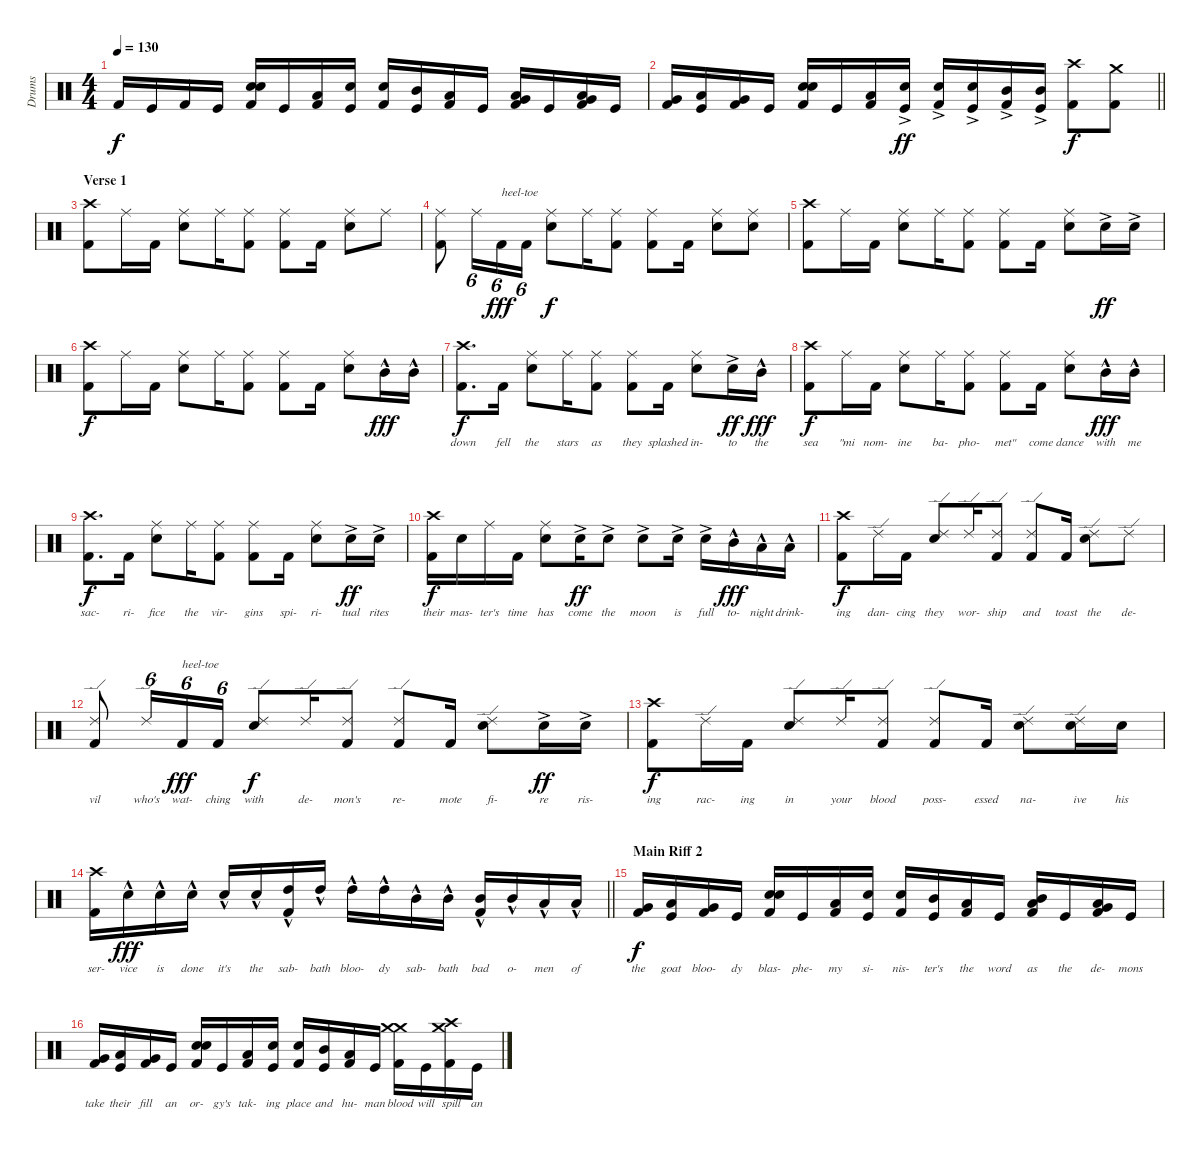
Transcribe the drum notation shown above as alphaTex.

\track ("Drums" "Drums") {instrument percussion}
\staff {score}
\articulation defaults
\ts (4 4)
\tempo 130
\clef neutral
\ks c "Kick (hit) 2".16{dy f} "Kick (hit)".16 "Kick (hit) 2".16 "Kick (hit)".16
("Snare (hit) 2" "Snare (hit) 2" "Kick (hit) 2").16 "Kick (hit)".16 ("Low Tom (hit)" "Kick (hit) 2").16 ("Snare (hit) 2" "Kick (hit)").16 ("Snare (hit) 2" "Kick (hit) 2").16 ("Mid Tom (hit)" "Kick (hit)").16 ("Low Tom (hit)" "Kick (hit) 2").16 "Kick (hit)".16 ("Low Tom (hit)" "Very Low Tom (hit)" "Kick (hit) 2").16 "Kick (hit)".16 ("Low Tom (hit)" "Very Low Tom (hit)" "Kick (hit) 2").16 "Kick (hit)".16 |
\barLineRight lightlight
("Very Low Tom (hit)" "Kick (hit) 2").16 ("Low Tom (hit)" "Kick (hit)").16 ("Very Low Tom (hit)" "Kick (hit) 2").16 "Kick (hit)".16 ("Snare (hit) 2" "Snare (hit) 2" "Kick (hit) 2").16 "Kick (hit)".16 ("Low Tom (hit)" "Kick (hit) 2").16 ("Snare (hit) 2"{ac} "Kick (hit)").16{dy ff} ("Snare (hit) 2"{ac} "Kick (hit) 2").16 ("Snare (hit) 2"{ac} "Kick (hit)").16 ("Mid Tom (hit)"{ac} "Kick (hit) 2").16 ("Mid Tom (hit)"{ac} "Kick (hit)").16 ("Crash high (hit)" "Kick (hit) 2").8{dy f} ("Crash medium (hit)" "Kick (hit) 2").8 |
\section ("" "Verse 1")
("Crash high (hit)" "Kick (hit) 2").8 "Ride (middle)".16 "Kick (hit) 2".16 ("Ride (middle)" "Snare (hit) 2").8 "Ride (middle)".16 ("Ride (middle)" "Kick (hit) 2").8 ("Ride (middle)" "Kick (hit) 2").8 "Kick (hit) 2".16 ("Ride (middle)" "Snare (hit) 2").8 "Ride (middle)".8 |
("Ride (middle)" "Kick (hit) 2").8 "Ride (middle)".16{tu (6 4)} "Kick (hit) 2".16{tu (6 4) txt "heel-toe" dy fff} "Kick (hit) 2".16{tu (6 4)} ("Ride (middle)" "Snare (hit) 2").8{dy f} "Ride (middle)".16 ("Ride (middle)" "Kick (hit) 2").8 ("Ride (middle)" "Kick (hit) 2").8 "Kick (hit) 2".16 ("Ride (middle)" "Snare (hit) 2").8 ("Ride (middle)" "Snare (hit) 2").8 |
("Crash high (hit)" "Kick (hit) 2").8 "Ride (middle)".16 "Kick (hit) 2".16 ("Ride (middle)" "Snare (hit) 2").8 "Ride (middle)".16 ("Ride (middle)" "Kick (hit) 2").8 ("Ride (middle)" "Kick (hit) 2").8 "Kick (hit) 2".16 ("Ride (middle)" "Snare (hit) 2").8 "Snare (hit) 2"{ac}.16{dy ff} "Snare (hit) 2"{ac}.16 |
("Crash high (hit)" "Kick (hit) 2").8{dy f} "Ride (middle)".16 "Kick (hit) 2".16 ("Ride (middle)" "Snare (hit) 2").8 "Ride (middle)".16 ("Ride (middle)" "Kick (hit) 2").8 ("Ride (middle)" "Kick (hit) 2").8 "Kick (hit) 2".16 ("Ride (middle)" "Snare (hit) 2").8 "Mid Tom (hit)"{hac}.16{dy fff} "Mid Tom (hit)"{hac}.16 |
("Crash high (hit)" "Kick (hit) 2").8{d lyrics (0 "down") lyrics (1 "") lyrics (2 "") lyrics (3 "") lyrics (4 "") dy f} "Kick (hit) 2".16{lyrics (0 "fell") lyrics (1 "") lyrics (2 "") lyrics (3 "") lyrics (4 "")} ("Ride (middle)" "Snare (hit) 2").8{lyrics (0 "the") lyrics (1 "") lyrics (2 "") lyrics (3 "") lyrics (4 "")} "Ride (middle)".16{lyrics (0 "stars") lyrics (1 "") lyrics (2 "") lyrics (3 "") lyrics (4 "")} ("Ride (middle)" "Kick (hit) 2").8{lyrics (0 "as") lyrics (1 "") lyrics (2 "") lyrics (3 "") lyrics (4 "")} ("Ride (middle)" "Kick (hit) 2").8{lyrics (0 "they") lyrics (1 "") lyrics (2 "") lyrics (3 "") lyrics (4 "")} "Kick (hit) 2".16{lyrics (0 "splashed") lyrics (1 "") lyrics (2 "") lyrics (3 "") lyrics (4 "")} ("Ride (middle)" "Snare (hit) 2").8{lyrics (0 "in-") lyrics (1 "") lyrics (2 "") lyrics (3 "") lyrics (4 "")} "Snare (hit) 2"{ac}.16{lyrics (0 "to") lyrics (1 "") lyrics (2 "") lyrics (3 "") lyrics (4 "") dy ff} "Mid Tom (hit)"{hac}.16{lyrics (0 "the") lyrics (1 "") lyrics (2 "") lyrics (3 "") lyrics (4 "") dy fff} |
("Crash high (hit)" "Kick (hit) 2").8{lyrics (0 "sea") lyrics (1 "") lyrics (2 "") lyrics (3 "") lyrics (4 "") dy f} "Ride (middle)".16{lyrics (0 "\"mi") lyrics (1 "") lyrics (2 "") lyrics (3 "") lyrics (4 "")} "Kick (hit) 2".16{lyrics (0 "nom-") lyrics (1 "") lyrics (2 "") lyrics (3 "") lyrics (4 "")} ("Ride (middle)" "Snare (hit) 2").8{lyrics (0 "ine") lyrics (1 "") lyrics (2 "") lyrics (3 "") lyrics (4 "")} "Ride (middle)".16{lyrics (0 "ba-") lyrics (1 "") lyrics (2 "") lyrics (3 "") lyrics (4 "")} ("Ride (middle)" "Kick (hit) 2").8{lyrics (0 "pho-") lyrics (1 "") lyrics (2 "") lyrics (3 "") lyrics (4 "")} ("Ride (middle)" "Kick (hit) 2").8{lyrics (0 "met\"") lyrics (1 "") lyrics (2 "") lyrics (3 "") lyrics (4 "")} "Kick (hit) 2".16{lyrics (0 "come") lyrics (1 "") lyrics (2 "") lyrics (3 "") lyrics (4 "")} ("Ride (middle)" "Snare (hit) 2").8{lyrics (0 "dance") lyrics (1 "") lyrics (2 "") lyrics (3 "") lyrics (4 "")} "Mid Tom (hit)"{hac}.16{lyrics (0 "with") lyrics (1 "") lyrics (2 "") lyrics (3 "") lyrics (4 "") dy fff} "Mid Tom (hit)"{hac}.16{lyrics (0 "me") lyrics (1 "") lyrics (2 "") lyrics (3 "") lyrics (4 "")} |
("Crash high (hit)" "Kick (hit) 2").8{d lyrics (0 "sac-") lyrics (1 "") lyrics (2 "") lyrics (3 "") lyrics (4 "") dy f} "Kick (hit) 2".16{lyrics (0 "ri-") lyrics (1 "") lyrics (2 "") lyrics (3 "") lyrics (4 "")} ("Ride (middle)" "Snare (hit) 2").8{lyrics (0 "fice") lyrics (1 "") lyrics (2 "") lyrics (3 "") lyrics (4 "")} "Ride (middle)".16{lyrics (0 "the") lyrics (1 "") lyrics (2 "") lyrics (3 "") lyrics (4 "")} ("Ride (middle)" "Kick (hit) 2").8{lyrics (0 "vir-") lyrics (1 "") lyrics (2 "") lyrics (3 "") lyrics (4 "")} ("Ride (middle)" "Kick (hit) 2").8{lyrics (0 "gins") lyrics (1 "") lyrics (2 "") lyrics (3 "") lyrics (4 "")} "Kick (hit) 2".16{lyrics (0 "spi-") lyrics (1 "") lyrics (2 "") lyrics (3 "") lyrics (4 "")} ("Ride (middle)" "Snare (hit) 2").8{lyrics (0 "ri-") lyrics (1 "") lyrics (2 "") lyrics (3 "") lyrics (4 "")} "Snare (hit) 2"{ac}.16{lyrics (0 "tual") lyrics (1 "") lyrics (2 "") lyrics (3 "") lyrics (4 "") dy ff} "Snare (hit) 2"{ac}.16{lyrics (0 "rites") lyrics (1 "") lyrics (2 "") lyrics (3 "") lyrics (4 "")} |
("Crash high (hit)" "Kick (hit) 2").16{lyrics (0 "their") lyrics (1 "") lyrics (2 "") lyrics (3 "") lyrics (4 "") dy f} "Snare (hit) 2".16{lyrics (0 "mas-") lyrics (1 "") lyrics (2 "") lyrics (3 "") lyrics (4 "")} "Ride (middle)".16{lyrics (0 "ter's") lyrics (1 "") lyrics (2 "") lyrics (3 "") lyrics (4 "")} "Kick (hit) 2".16{lyrics (0 "time") lyrics (1 "") lyrics (2 "") lyrics (3 "") lyrics (4 "")} ("Ride (middle)" "Snare (hit) 2").8{lyrics (0 "has") lyrics (1 "") lyrics (2 "") lyrics (3 "") lyrics (4 "")} "Snare (hit) 2"{ac}.16{lyrics (0 "come") lyrics (1 "") lyrics (2 "") lyrics (3 "") lyrics (4 "") dy ff} "Snare (hit) 2"{ac}.8{lyrics (0 "the") lyrics (1 "") lyrics (2 "") lyrics (3 "") lyrics (4 "")} "Snare (hit) 2"{ac}.8{lyrics (0 "moon") lyrics (1 "") lyrics (2 "") lyrics (3 "") lyrics (4 "")} "Snare (hit) 2"{ac}.16{lyrics (0 "is") lyrics (1 "") lyrics (2 "") lyrics (3 "") lyrics (4 "")} "Snare (hit) 2"{ac}.16{lyrics (0 "full") lyrics (1 "") lyrics (2 "") lyrics (3 "") lyrics (4 "")} "Mid Tom (hit)"{hac}.16{lyrics (0 "to-") lyrics (1 "") lyrics (2 "") lyrics (3 "") lyrics (4 "") dy fff} "Low Tom (hit)"{hac}.16{lyrics (0 "night") lyrics (1 "") lyrics (2 "") lyrics (3 "") lyrics (4 "")} "Low Tom (hit)"{hac}.16{lyrics (0 "drink-") lyrics (1 "") lyrics (2 "") lyrics (3 "") lyrics (4 "")} |
("Crash high (hit)" "Kick (hit) 2").8{lyrics (0 "ing") lyrics (1 "") lyrics (2 "") lyrics (3 "") lyrics (4 "") dy f} "Ride (edge) 2".16{lyrics (0 "dan-") lyrics (1 "") lyrics (2 "") lyrics (3 "") lyrics (4 "")} "Kick (hit) 2".16{lyrics (0 "cing") lyrics (1 "") lyrics (2 "") lyrics (3 "") lyrics (4 "")} ("Ride (edge) 2" "Snare (hit) 2").8{lyrics (0 "they") lyrics (1 "") lyrics (2 "") lyrics (3 "") lyrics (4 "")} "Ride (edge) 2".16{lyrics (0 "wor-") lyrics (1 "") lyrics (2 "") lyrics (3 "") lyrics (4 "")} ("Ride (edge) 2" "Kick (hit) 2").8{lyrics (0 "ship") lyrics (1 "") lyrics (2 "") lyrics (3 "") lyrics (4 "")} ("Ride (edge) 2" "Kick (hit) 2").8{lyrics (0 "and") lyrics (1 "") lyrics (2 "") lyrics (3 "") lyrics (4 "")} "Kick (hit) 2".16{lyrics (0 "toast") lyrics (1 "") lyrics (2 "") lyrics (3 "") lyrics (4 "")} ("Ride (edge) 2" "Snare (hit) 2").8{lyrics (0 "the") lyrics (1 "") lyrics (2 "") lyrics (3 "") lyrics (4 "")} "Ride (edge) 2".8{lyrics (0 "de-") lyrics (1 "") lyrics (2 "") lyrics (3 "") lyrics (4 "")} |
("Ride (edge) 2" "Kick (hit) 2").8{lyrics (0 "vil") lyrics (1 "") lyrics (2 "") lyrics (3 "") lyrics (4 "")} "Ride (edge) 2".16{tu (6 4) lyrics (0 "who's") lyrics (1 "") lyrics (2 "") lyrics (3 "") lyrics (4 "")} "Kick (hit) 2".16{tu (6 4) txt "heel-toe" lyrics (0 "wat-") lyrics (1 "") lyrics (2 "") lyrics (3 "") lyrics (4 "") dy fff} "Kick (hit) 2".16{tu (6 4) lyrics (0 "ching") lyrics (1 "") lyrics (2 "") lyrics (3 "") lyrics (4 "")} ("Ride (edge) 2" "Snare (hit) 2").8{lyrics (0 "with") lyrics (1 "") lyrics (2 "") lyrics (3 "") lyrics (4 "") dy f} "Ride (edge) 2".16{lyrics (0 "de-") lyrics (1 "") lyrics (2 "") lyrics (3 "") lyrics (4 "")} ("Ride (edge) 2" "Kick (hit) 2").8{lyrics (0 "mon's") lyrics (1 "") lyrics (2 "") lyrics (3 "") lyrics (4 "")} ("Ride (edge) 2" "Kick (hit) 2").8{lyrics (0 "re-") lyrics (1 "") lyrics (2 "") lyrics (3 "") lyrics (4 "")} "Kick (hit) 2".16{lyrics (0 "mote") lyrics (1 "") lyrics (2 "") lyrics (3 "") lyrics (4 "")} ("Ride (edge) 2" "Snare (hit) 2").8{lyrics (0 "fi-") lyrics (1 "") lyrics (2 "") lyrics (3 "") lyrics (4 "")} "Snare (hit) 2"{ac}.16{lyrics (0 "re") lyrics (1 "") lyrics (2 "") lyrics (3 "") lyrics (4 "") dy ff} "Snare (hit) 2"{ac}.16{lyrics (0 "ris-") lyrics (1 "") lyrics (2 "") lyrics (3 "") lyrics (4 "")} |
("Crash high (hit)" "Kick (hit) 2").8{lyrics (0 "ing") lyrics (1 "") lyrics (2 "") lyrics (3 "") lyrics (4 "") dy f} "Ride (edge) 2".16{lyrics (0 "rac-") lyrics (1 "") lyrics (2 "") lyrics (3 "") lyrics (4 "")} "Kick (hit) 2".16{lyrics (0 "ing") lyrics (1 "") lyrics (2 "") lyrics (3 "") lyrics (4 "")} ("Ride (edge) 2" "Snare (hit) 2").8{lyrics (0 "in") lyrics (1 "") lyrics (2 "") lyrics (3 "") lyrics (4 "")} "Ride (edge) 2".16{lyrics (0 "your") lyrics (1 "") lyrics (2 "") lyrics (3 "") lyrics (4 "")} ("Ride (edge) 2" "Kick (hit) 2").8{lyrics (0 "blood") lyrics (1 "") lyrics (2 "") lyrics (3 "") lyrics (4 "")} ("Ride (edge) 2" "Kick (hit) 2").8{lyrics (0 "poss-") lyrics (1 "") lyrics (2 "") lyrics (3 "") lyrics (4 "")} "Kick (hit) 2".16{lyrics (0 "essed") lyrics (1 "") lyrics (2 "") lyrics (3 "") lyrics (4 "")} ("Ride (edge) 2" "Snare (hit) 2").8{lyrics (0 "na-") lyrics (1 "") lyrics (2 "") lyrics (3 "") lyrics (4 "")} ("Ride (edge) 2" "Snare (hit) 2").16{lyrics (0 "ive") lyrics (1 "") lyrics (2 "") lyrics (3 "") lyrics (4 "")} "Snare (hit) 2".16{lyrics (0 "his") lyrics (1 "") lyrics (2 "") lyrics (3 "") lyrics (4 "")} |
\barLineRight lightlight
("Crash high (hit)" "Kick (hit) 2").16{lyrics (0 "ser-") lyrics (1 "") lyrics (2 "") lyrics (3 "") lyrics (4 "")} "Snare (hit) 2"{hac}.16{lyrics (0 "vice") lyrics (1 "") lyrics (2 "") lyrics (3 "") lyrics (4 "") dy fff} "Snare (hit) 2"{hac}.16{lyrics (0 "is") lyrics (1 "") lyrics (2 "") lyrics (3 "") lyrics (4 "")} "Snare (hit) 2"{hac}.16{lyrics (0 "done") lyrics (1 "") lyrics (2 "") lyrics (3 "") lyrics (4 "")} "Snare (hit) 2"{hac}.16{lyrics (0 "it's") lyrics (1 "") lyrics (2 "") lyrics (3 "") lyrics (4 "")} "Snare (hit) 2"{hac}.16{lyrics (0 "the") lyrics (1 "") lyrics (2 "") lyrics (3 "") lyrics (4 "")} ("High Tom (hit)"{hac} "Kick (hit) 2").16{lyrics (0 "sab-") lyrics (1 "") lyrics (2 "") lyrics (3 "") lyrics (4 "")} "High Tom (hit)"{hac}.16{lyrics (0 "bath") lyrics (1 "") lyrics (2 "") lyrics (3 "") lyrics (4 "")} "High Tom (hit)"{hac}.16{lyrics (0 "bloo-") lyrics (1 "") lyrics (2 "") lyrics (3 "") lyrics (4 "")} "High Tom (hit)"{hac}.16{lyrics (0 "dy") lyrics (1 "") lyrics (2 "") lyrics (3 "") lyrics (4 "")} "Mid Tom (hit)"{hac}.16{lyrics (0 "sab-") lyrics (1 "") lyrics (2 "") lyrics (3 "") lyrics (4 "")} "Mid Tom (hit)"{hac}.16{lyrics (0 "bath") lyrics (1 "") lyrics (2 "") lyrics (3 "") lyrics (4 "")} ("Mid Tom (hit)"{hac} "Kick (hit) 2").16{lyrics (0 "bad") lyrics (1 "") lyrics (2 "") lyrics (3 "") lyrics (4 "")} "Mid Tom (hit)"{hac}.16{lyrics (0 "o-") lyrics (1 "") lyrics (2 "") lyrics (3 "") lyrics (4 "")} "Low Tom (hit)"{hac}.16{lyrics (0 "men") lyrics (1 "") lyrics (2 "") lyrics (3 "") lyrics (4 "")} "Low Tom (hit)"{hac}.16{lyrics (0 "of") lyrics (1 "") lyrics (2 "") lyrics (3 "") lyrics (4 "")} |
\section ("" "Main Riff 2")
("Very Low Tom (hit)" "Kick (hit) 2").16{lyrics (0 "the") lyrics (1 "") lyrics (2 "") lyrics (3 "") lyrics (4 "") dy f} ("Low Tom (hit)" "Kick (hit)").16{lyrics (0 "goat") lyrics (1 "") lyrics (2 "") lyrics (3 "") lyrics (4 "")} ("Very Low Tom (hit)" "Kick (hit) 2").16{lyrics (0 "bloo-") lyrics (1 "") lyrics (2 "") lyrics (3 "") lyrics (4 "")} "Kick (hit)".16{lyrics (0 "dy") lyrics (1 "") lyrics (2 "") lyrics (3 "") lyrics (4 "")} ("Snare (hit) 2" "Snare (hit) 2" "Kick (hit) 2").16{lyrics (0 "blas-") lyrics (1 "") lyrics (2 "") lyrics (3 "") lyrics (4 "")} "Kick (hit)".16{lyrics (0 "phe-") lyrics (1 "") lyrics (2 "") lyrics (3 "") lyrics (4 "")} ("Low Tom (hit)" "Kick (hit) 2").16{lyrics (0 "my") lyrics (1 "") lyrics (2 "") lyrics (3 "") lyrics (4 "")} ("Snare (hit) 2" "Kick (hit)").16{lyrics (0 "si-") lyrics (1 "") lyrics (2 "") lyrics (3 "") lyrics (4 "")} ("Snare (hit) 2" "Kick (hit) 2").16{lyrics (0 "nis-") lyrics (1 "") lyrics (2 "") lyrics (3 "") lyrics (4 "")} ("Mid Tom (hit)" "Kick (hit)").16{lyrics (0 "ter's") lyrics (1 "") lyrics (2 "") lyrics (3 "") lyrics (4 "")} ("Low Tom (hit)" "Kick (hit) 2").16{lyrics (0 "the") lyrics (1 "") lyrics (2 "") lyrics (3 "") lyrics (4 "")} "Kick (hit)".16{lyrics (0 "word") lyrics (1 "") lyrics (2 "") lyrics (3 "") lyrics (4 "")} ("Mid Tom (hit)" "Low Tom (hit)" "Kick (hit) 2").16{lyrics (0 "as") lyrics (1 "") lyrics (2 "") lyrics (3 "") lyrics (4 "")} "Kick (hit)".16{lyrics (0 "the") lyrics (1 "") lyrics (2 "") lyrics (3 "") lyrics (4 "")} ("Low Tom (hit)" "Very Low Tom (hit)" "Kick (hit) 2").16{lyrics (0 "de-") lyrics (1 "") lyrics (2 "") lyrics (3 "") lyrics (4 "")} "Kick (hit)".16{lyrics (0 "mons") lyrics (1 "") lyrics (2 "") lyrics (3 "") lyrics (4 "")} |
("Very Low Tom (hit)" "Kick (hit) 2").16{lyrics (0 "take") lyrics (1 "") lyrics (2 "") lyrics (3 "") lyrics (4 "")} ("Low Tom (hit)" "Kick (hit)").16{lyrics (0 "their") lyrics (1 "") lyrics (2 "") lyrics (3 "") lyrics (4 "")} ("Very Low Tom (hit)" "Kick (hit) 2").16{lyrics (0 "fill") lyrics (1 "") lyrics (2 "") lyrics (3 "") lyrics (4 "")} "Kick (hit)".16{lyrics (0 "an") lyrics (1 "") lyrics (2 "") lyrics (3 "") lyrics (4 "")} ("Snare (hit) 2" "Snare (hit) 2" "Kick (hit) 2").16{lyrics (0 "or-") lyrics (1 "") lyrics (2 "") lyrics (3 "") lyrics (4 "")} "Kick (hit)".16{lyrics (0 "gy's") lyrics (1 "") lyrics (2 "") lyrics (3 "") lyrics (4 "")} ("Low Tom (hit)" "Kick (hit) 2").16{lyrics (0 "tak-") lyrics (1 "") lyrics (2 "") lyrics (3 "") lyrics (4 "")} ("Snare (hit) 2" "Kick (hit)").16{lyrics (0 "ing") lyrics (1 "") lyrics (2 "") lyrics (3 "") lyrics (4 "")} ("Snare (hit) 2" "Kick (hit) 2").16{lyrics (0 "place") lyrics (1 "") lyrics (2 "") lyrics (3 "") lyrics (4 "")} ("Mid Tom (hit)" "Kick (hit)").16{lyrics (0 "and") lyrics (1 "") lyrics (2 "") lyrics (3 "") lyrics (4 "")} ("Low Tom (hit)" "Kick (hit) 2").16{lyrics (0 "hu-") lyrics (1 "") lyrics (2 "") lyrics (3 "") lyrics (4 "")} "Kick (hit)".16{lyrics (0 "man") lyrics (1 "") lyrics (2 "") lyrics (3 "") lyrics (4 "")} ("Crash medium (hit)" "Crash medium (hit)" "Kick (hit) 2").16{lyrics (0 "blood") lyrics (1 "") lyrics (2 "") lyrics (3 "") lyrics (4 "")} "Kick (hit)".16{lyrics (0 "will") lyrics (1 "") lyrics (2 "") lyrics (3 "") lyrics (4 "")} ("Crash medium (hit)" "Crash high (hit)" "Kick (hit) 2").16{lyrics (0 "spill") lyrics (1 "") lyrics (2 "") lyrics (3 "") lyrics (4 "")} "Kick (hit)".16{lyrics (0 "an") lyrics (1 "") lyrics (2 "") lyrics (3 "") lyrics (4 "")}
